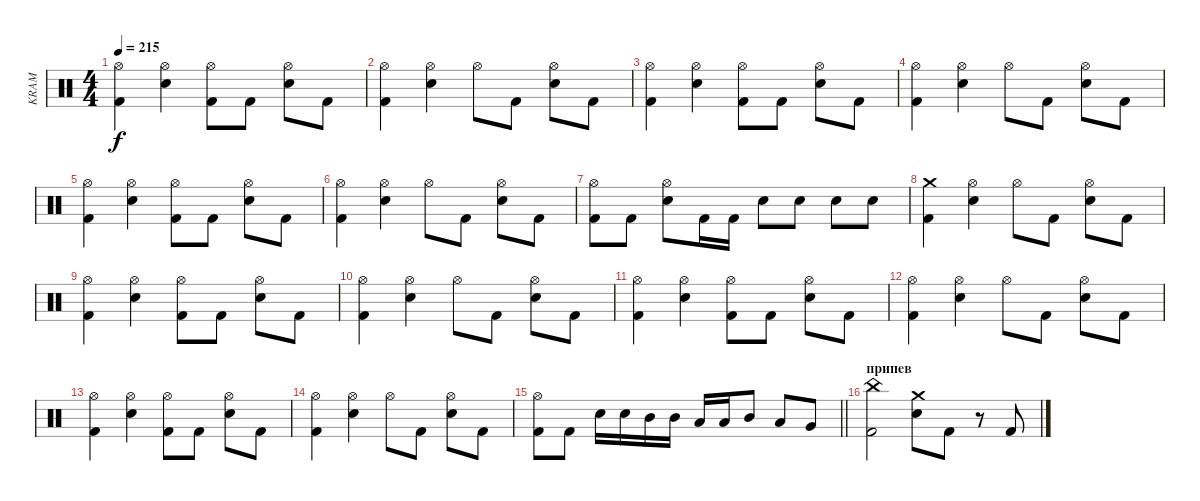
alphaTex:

\track ("KRAM" "KRAM") {instrument percussion}
\staff {score}
\articulation defaults
\ts (4 4)
\tempo 215
\clef neutral
\ks c
("Kick (hit) 2" "Hi-Hat (open)").4{dy f} ("Electric Snare (hit)" "Hi-Hat (open)").4 ("Kick (hit) 2" "Hi-Hat (open)").8 "Kick (hit) 2".8 ("Electric Snare (hit)" "Hi-Hat (open)").8 "Kick (hit) 2".8 |
("Kick (hit) 2" "Hi-Hat (open)").4 ("Electric Snare (hit)" "Hi-Hat (open)").4 "Hi-Hat (open)".8 "Kick (hit) 2".8 ("Electric Snare (hit)" "Hi-Hat (open)").8 "Kick (hit) 2".8 |
("Kick (hit) 2" "Hi-Hat (open)").4 ("Electric Snare (hit)" "Hi-Hat (open)").4 ("Kick (hit) 2" "Hi-Hat (open)").8 "Kick (hit) 2".8 ("Electric Snare (hit)" "Hi-Hat (open)").8 "Kick (hit) 2".8 |
("Kick (hit) 2" "Hi-Hat (open)").4 ("Electric Snare (hit)" "Hi-Hat (open)").4 "Hi-Hat (open)".8 "Kick (hit) 2".8 ("Electric Snare (hit)" "Hi-Hat (open)").8 "Kick (hit) 2".8 |
("Kick (hit) 2" "Hi-Hat (open)").4 ("Electric Snare (hit)" "Hi-Hat (open)").4 ("Kick (hit) 2" "Hi-Hat (open)").8 "Kick (hit) 2".8 ("Electric Snare (hit)" "Hi-Hat (open)").8 "Kick (hit) 2".8 |
("Kick (hit) 2" "Hi-Hat (open)").4 ("Electric Snare (hit)" "Hi-Hat (open)").4 "Hi-Hat (open)".8 "Kick (hit) 2".8 ("Electric Snare (hit)" "Hi-Hat (open)").8 "Kick (hit) 2".8 |
("Kick (hit) 2" "Hi-Hat (open)").8 "Kick (hit) 2".8 ("Electric Snare (hit)" "Hi-Hat (open)").8 "Kick (hit) 2".16 "Kick (hit) 2".16 "Electric Snare (hit)".8 "Electric Snare (hit)".8 "Electric Snare (hit)".8 "Electric Snare (hit)".8 |
("Kick (hit) 2" "Crash medium (hit)").4 ("Electric Snare (hit)" "Hi-Hat (open)").4 "Hi-Hat (open)".8 "Kick (hit) 2".8 ("Electric Snare (hit)" "Hi-Hat (open)").8 "Kick (hit) 2".8 |
("Kick (hit) 2" "Hi-Hat (open)").4 ("Electric Snare (hit)" "Hi-Hat (open)").4 ("Kick (hit) 2" "Hi-Hat (open)").8 "Kick (hit) 2".8 ("Electric Snare (hit)" "Hi-Hat (open)").8 "Kick (hit) 2".8 |
("Kick (hit) 2" "Hi-Hat (open)").4 ("Electric Snare (hit)" "Hi-Hat (open)").4 "Hi-Hat (open)".8 "Kick (hit) 2".8 ("Electric Snare (hit)" "Hi-Hat (open)").8 "Kick (hit) 2".8 |
("Kick (hit) 2" "Hi-Hat (open)").4 ("Electric Snare (hit)" "Hi-Hat (open)").4 ("Kick (hit) 2" "Hi-Hat (open)").8 "Kick (hit) 2".8 ("Electric Snare (hit)" "Hi-Hat (open)").8 "Kick (hit) 2".8 |
("Kick (hit) 2" "Hi-Hat (open)").4 ("Electric Snare (hit)" "Hi-Hat (open)").4 "Hi-Hat (open)".8 "Kick (hit) 2".8 ("Electric Snare (hit)" "Hi-Hat (open)").8 "Kick (hit) 2".8 |
("Kick (hit) 2" "Hi-Hat (open)").4 ("Electric Snare (hit)" "Hi-Hat (open)").4 ("Kick (hit) 2" "Hi-Hat (open)").8 "Kick (hit) 2".8 ("Electric Snare (hit)" "Hi-Hat (open)").8 "Kick (hit) 2".8 |
("Kick (hit) 2" "Hi-Hat (open)").4 ("Electric Snare (hit)" "Hi-Hat (open)").4 "Hi-Hat (open)".8 "Kick (hit) 2".8 ("Electric Snare (hit)" "Hi-Hat (open)").8 "Kick (hit) 2".8 |
\barLineRight lightlight
("Kick (hit) 2" "Hi-Hat (open)").8 "Kick (hit) 2".8 "Electric Snare (hit)".16 "Electric Snare (hit)".16 "Mid Tom (hit)".16 "Mid Tom (hit)".16 "Low Tom (hit)".16 "Low Tom (hit)".16 "Mid Tom (hit)".8 "Low Tom (hit)".8 "Very Low Tom (hit)".8 |
\section ("" "припев")
("Kick (hit) 2" "China (hit)").2 ("Electric Snare (hit)" "Crash medium (hit)").8 "Kick (hit) 2".8 r.8 "Kick (hit) 2".8
